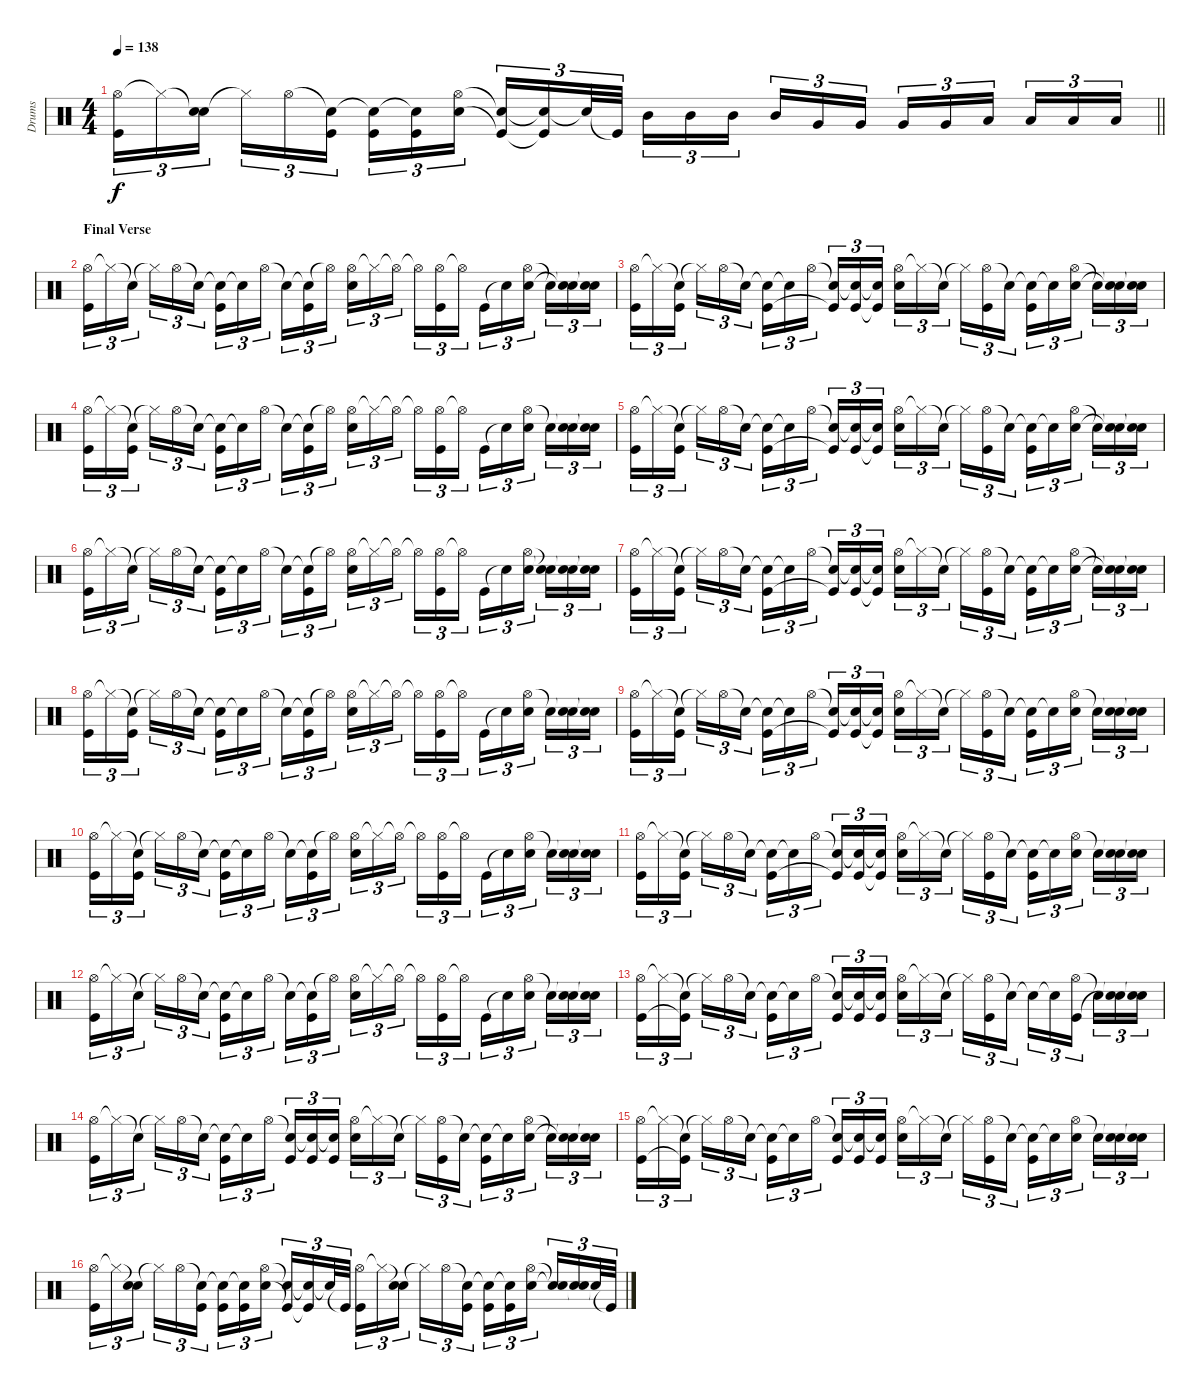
\track ("Drums" "Drums") {instrument percussion}
\staff {score}
\articulation defaults
\ts (4 4)
\tempo 138
\clef neutral
\barLineRight lightlight
\ks c
("Hi-Hat (open)" "Kick (hit)").16{tu (3 2) dy f} "Hi-Hat (closed)"{t}.16{tu (3 2)} ("Snare (hit)"{t} "Electric Snare (hit)").16{tu (3 2)} "Hi-Hat (closed)"{t}.16{tu (3 2)} "Hi-Hat (open)".16{tu (3 2)} ("Snare (hit)"{t} "Kick (hit)").16{tu (3 2)} ("Snare (hit)"{t} "Kick (hit)").16{tu (3 2)} ("Snare (hit)"{t} "Kick (hit)").16{tu (3 2)} ("Hi-Hat (open)" "Electric Snare (hit)").16{tu (3 2)} ("Snare (hit)"{t} "Kick (hit)"{t}).16{tu (3 2)} ("Snare (hit)"{t} "Kick (hit)"{t}).16{tu (3 2)} "Snare (hit)"{t}.32{tu (3 2)} "Kick (hit)"{t}.32{tu (3 2)} "Mid Tom (hit)".16{tu (3 2)} "Mid Tom (hit)".16{tu (3 2)} "Mid Tom (hit)".16{tu (3 2)} "Mid Tom (hit)".16{tu (3 2)} "Very Low Tom (hit)".16{tu (3 2)} "Very Low Tom (hit)".16{tu (3 2)} "Very Low Tom (hit)".16{tu (3 2)} "Very Low Tom (hit)".16{tu (3 2)} "Low Floor Tom (hit)".16{tu (3 2)} "Low Floor Tom (hit)".16{tu (3 2)} "Low Floor Tom (hit)".16{tu (3 2)} "Low Floor Tom (hit)".16{tu (3 2)} |
\section ("" "Final Verse")
("Hi-Hat (open)" "Kick (hit)").16{tu (3 2)} "Hi-Hat (closed)"{t}.16{tu (3 2)} "Snare (hit)"{t}.16{tu (3 2)} "Hi-Hat (closed)"{t}.16{tu (3 2)} "Hi-Hat (open)".16{tu (3 2)} "Snare (hit)"{t}.16{tu (3 2)} ("Snare (hit)"{t} "Kick (hit)").16{tu (3 2)} "Snare (hit)"{t}.16{tu (3 2)} "Hi-Hat (open)".16{tu (3 2)} "Snare (hit)"{t}.16{tu (3 2)} ("Snare (hit)"{t} "Kick (hit)").16{tu (3 2)} "Hi-Hat (open)"{t}.16{tu (3 2)} ("Hi-Hat (open)" "Electric Snare (hit)").16{tu (3 2)} "Hi-Hat (closed)"{t}.16{tu (3 2)} "Hi-Hat (open)"{t}.16{tu (3 2)} "Hi-Hat (open)"{t}.16{tu (3 2)} ("Hi-Hat (open)" "Kick (hit)").16{tu (3 2)} "Hi-Hat (open)"{t}.16{tu (3 2)} "Kick (hit)".16{tu (3 2)} "Snare (hit)"{t}.16{tu (3 2)} ("Hi-Hat (open)" "Electric Snare (hit)").16{tu (3 2)} "Snare (hit)"{t}.16{tu (3 2)} ("Snare (hit)"{t} "Electric Snare (hit)"{t}).16{tu (3 2)} ("Snare (hit)"{t} "Electric Snare (hit)"{t}).16{tu (3 2)} |
("Hi-Hat (open)" "Kick (hit)").16{tu (3 2)} "Hi-Hat (closed)"{t}.16{tu (3 2)} ("Snare (hit)"{t} "Kick (hit)").16{tu (3 2)} "Hi-Hat (closed)"{t}.16{tu (3 2)} "Hi-Hat (open)".16{tu (3 2)} "Snare (hit)"{t}.16{tu (3 2)} ("Snare (hit)"{t} "Kick (hit)").16{tu (3 2)} "Snare (hit)"{t}.16{tu (3 2)} "Hi-Hat (open)".16{tu (3 2)} ("Snare (hit)"{t} "Kick (hit)"{t}).16{tu (3 2)} ("Snare (hit)"{t} "Kick (hit)").16{tu (3 2)} ("Snare (hit)"{t} "Kick (hit)"{t}).16{tu (3 2)} ("Hi-Hat (open)" "Electric Snare (hit)").16{tu (3 2)} "Hi-Hat (closed)"{t}.16{tu (3 2)} "Snare (hit)"{t}.16{tu (3 2)} "Hi-Hat (closed)"{t}.16{tu (3 2)} ("Hi-Hat (open)" "Kick (hit)").16{tu (3 2)} "Snare (hit)"{t}.16{tu (3 2)} ("Snare (hit)"{t} "Kick (hit)").16{tu (3 2)} "Snare (hit)"{t}.16{tu (3 2)} ("Hi-Hat (open)" "Electric Snare (hit)").16{tu (3 2)} "Snare (hit)"{t}.16{tu (3 2)} ("Snare (hit)"{t} "Electric Snare (hit)"{t}).16{tu (3 2)} ("Snare (hit)"{t} "Electric Snare (hit)"{t}).16{tu (3 2)} |
("Hi-Hat (open)" "Kick (hit)").16{tu (3 2)} "Hi-Hat (closed)"{t}.16{tu (3 2)} ("Snare (hit)"{t} "Kick (hit)").16{tu (3 2)} "Hi-Hat (closed)"{t}.16{tu (3 2)} "Hi-Hat (open)".16{tu (3 2)} "Snare (hit)"{t}.16{tu (3 2)} ("Snare (hit)"{t} "Kick (hit)").16{tu (3 2)} "Snare (hit)"{t}.16{tu (3 2)} "Hi-Hat (open)".16{tu (3 2)} "Snare (hit)"{t}.16{tu (3 2)} ("Snare (hit)"{t} "Kick (hit)").16{tu (3 2)} "Hi-Hat (open)"{t}.16{tu (3 2)} ("Hi-Hat (open)" "Electric Snare (hit)").16{tu (3 2)} "Hi-Hat (closed)"{t}.16{tu (3 2)} "Hi-Hat (open)"{t}.16{tu (3 2)} "Hi-Hat (open)"{t}.16{tu (3 2)} ("Hi-Hat (open)" "Kick (hit)").16{tu (3 2)} "Hi-Hat (open)"{t}.16{tu (3 2)} "Kick (hit)".16{tu (3 2)} "Snare (hit)"{t}.16{tu (3 2)} ("Hi-Hat (open)" "Electric Snare (hit)").16{tu (3 2)} "Snare (hit)"{t}.16{tu (3 2)} ("Snare (hit)"{t} "Electric Snare (hit)").16{tu (3 2)} ("Snare (hit)"{t} "Electric Snare (hit)"{t}).16{tu (3 2)} |
("Hi-Hat (open)" "Kick (hit)").16{tu (3 2)} "Hi-Hat (closed)"{t}.16{tu (3 2)} ("Snare (hit)"{t} "Kick (hit)").16{tu (3 2)} "Hi-Hat (closed)"{t}.16{tu (3 2)} "Hi-Hat (open)".16{tu (3 2)} "Snare (hit)"{t}.16{tu (3 2)} ("Snare (hit)"{t} "Kick (hit)").16{tu (3 2)} "Snare (hit)"{t}.16{tu (3 2)} "Hi-Hat (open)".16{tu (3 2)} ("Snare (hit)"{t} "Kick (hit)"{t}).16{tu (3 2)} ("Snare (hit)"{t} "Kick (hit)").16{tu (3 2)} ("Snare (hit)"{t} "Kick (hit)"{t}).16{tu (3 2)} ("Hi-Hat (open)" "Electric Snare (hit)").16{tu (3 2)} "Hi-Hat (closed)"{t}.16{tu (3 2)} "Snare (hit)"{t}.16{tu (3 2)} "Hi-Hat (closed)"{t}.16{tu (3 2)} ("Hi-Hat (open)" "Kick (hit)").16{tu (3 2)} "Snare (hit)"{t}.16{tu (3 2)} ("Snare (hit)"{t} "Kick (hit)").16{tu (3 2)} "Snare (hit)"{t}.16{tu (3 2)} ("Hi-Hat (open)" "Electric Snare (hit)").16{tu (3 2)} "Snare (hit)"{t}.16{tu (3 2)} ("Snare (hit)"{t} "Electric Snare (hit)"{t}).16{tu (3 2)} ("Snare (hit)"{t} "Electric Snare (hit)"{t}).16{tu (3 2)} |
("Hi-Hat (open)" "Kick (hit)").16{tu (3 2)} "Hi-Hat (closed)"{t}.16{tu (3 2)} "Snare (hit)"{t}.16{tu (3 2)} "Hi-Hat (closed)"{t}.16{tu (3 2)} "Hi-Hat (open)".16{tu (3 2)} "Snare (hit)"{t}.16{tu (3 2)} ("Snare (hit)"{t} "Kick (hit)").16{tu (3 2)} "Snare (hit)"{t}.16{tu (3 2)} "Hi-Hat (open)".16{tu (3 2)} "Snare (hit)"{t}.16{tu (3 2)} ("Snare (hit)"{t} "Kick (hit)").16{tu (3 2)} "Hi-Hat (open)"{t}.16{tu (3 2)} ("Hi-Hat (open)" "Electric Snare (hit)").16{tu (3 2)} "Hi-Hat (closed)"{t}.16{tu (3 2)} "Hi-Hat (open)"{t}.16{tu (3 2)} "Hi-Hat (open)"{t}.16{tu (3 2)} ("Hi-Hat (open)" "Kick (hit)").16{tu (3 2)} "Hi-Hat (open)"{t}.16{tu (3 2)} "Kick (hit)".16{tu (3 2)} "Snare (hit)"{t}.16{tu (3 2)} ("Hi-Hat (open)" "Electric Snare (hit)").16{tu (3 2)} ("Snare (hit)"{t} "Electric Snare (hit)"{t}).16{tu (3 2)} ("Snare (hit)"{t} "Electric Snare (hit)").16{tu (3 2)} ("Snare (hit)"{t} "Electric Snare (hit)"{t}).16{tu (3 2)} |
("Hi-Hat (open)" "Kick (hit)").16{tu (3 2)} "Hi-Hat (closed)"{t}.16{tu (3 2)} ("Snare (hit)"{t} "Kick (hit)").16{tu (3 2)} "Hi-Hat (closed)"{t}.16{tu (3 2)} "Hi-Hat (open)".16{tu (3 2)} "Snare (hit)"{t}.16{tu (3 2)} ("Snare (hit)"{t} "Kick (hit)").16{tu (3 2)} "Snare (hit)"{t}.16{tu (3 2)} "Hi-Hat (open)".16{tu (3 2)} ("Snare (hit)"{t} "Kick (hit)"{t}).16{tu (3 2)} ("Snare (hit)"{t} "Kick (hit)").16{tu (3 2)} ("Snare (hit)"{t} "Kick (hit)"{t}).16{tu (3 2)} ("Hi-Hat (open)" "Electric Snare (hit)").16{tu (3 2)} "Hi-Hat (closed)"{t}.16{tu (3 2)} "Snare (hit)"{t}.16{tu (3 2)} "Hi-Hat (closed)"{t}.16{tu (3 2)} ("Hi-Hat (open)" "Kick (hit)").16{tu (3 2)} "Snare (hit)"{t}.16{tu (3 2)} ("Snare (hit)"{t} "Kick (hit)").16{tu (3 2)} "Snare (hit)"{t}.16{tu (3 2)} ("Hi-Hat (open)" "Electric Snare (hit)").16{tu (3 2)} "Snare (hit)"{t}.16{tu (3 2)} ("Snare (hit)"{t} "Electric Snare (hit)"{t}).16{tu (3 2)} ("Snare (hit)"{t} "Electric Snare (hit)"{t}).16{tu (3 2)} |
("Hi-Hat (open)" "Kick (hit)").16{tu (3 2)} "Hi-Hat (closed)"{t}.16{tu (3 2)} ("Snare (hit)"{t} "Kick (hit)").16{tu (3 2)} "Hi-Hat (closed)"{t}.16{tu (3 2)} "Hi-Hat (open)".16{tu (3 2)} "Snare (hit)"{t}.16{tu (3 2)} ("Snare (hit)"{t} "Kick (hit)").16{tu (3 2)} "Snare (hit)"{t}.16{tu (3 2)} "Hi-Hat (open)".16{tu (3 2)} "Snare (hit)"{t}.16{tu (3 2)} ("Snare (hit)"{t} "Kick (hit)").16{tu (3 2)} "Hi-Hat (open)"{t}.16{tu (3 2)} ("Hi-Hat (open)" "Electric Snare (hit)").16{tu (3 2)} "Hi-Hat (closed)"{t}.16{tu (3 2)} "Hi-Hat (open)"{t}.16{tu (3 2)} "Hi-Hat (open)"{t}.16{tu (3 2)} ("Hi-Hat (open)" "Kick (hit)").16{tu (3 2)} "Hi-Hat (open)"{t}.16{tu (3 2)} "Kick (hit)".16{tu (3 2)} "Snare (hit)"{t}.16{tu (3 2)} ("Hi-Hat (open)" "Electric Snare (hit)").16{tu (3 2)} "Snare (hit)"{t}.16{tu (3 2)} ("Snare (hit)"{t} "Electric Snare (hit)").16{tu (3 2)} ("Snare (hit)"{t} "Electric Snare (hit)"{t}).16{tu (3 2)} |
("Hi-Hat (open)" "Kick (hit)").16{tu (3 2)} "Hi-Hat (closed)"{t}.16{tu (3 2)} ("Snare (hit)"{t} "Kick (hit)").16{tu (3 2)} "Hi-Hat (closed)"{t}.16{tu (3 2)} "Hi-Hat (open)".16{tu (3 2)} "Snare (hit)"{t}.16{tu (3 2)} ("Snare (hit)"{t} "Kick (hit)").16{tu (3 2)} "Snare (hit)"{t}.16{tu (3 2)} "Hi-Hat (open)".16{tu (3 2)} ("Snare (hit)"{t} "Kick (hit)"{t}).16{tu (3 2)} ("Snare (hit)"{t} "Kick (hit)").16{tu (3 2)} ("Snare (hit)"{t} "Kick (hit)"{t}).16{tu (3 2)} ("Hi-Hat (open)" "Electric Snare (hit)").16{tu (3 2)} "Hi-Hat (closed)"{t}.16{tu (3 2)} "Snare (hit)"{t}.16{tu (3 2)} "Hi-Hat (closed)"{t}.16{tu (3 2)} ("Hi-Hat (open)" "Kick (hit)").16{tu (3 2)} "Snare (hit)"{t}.16{tu (3 2)} ("Snare (hit)"{t} "Kick (hit)").16{tu (3 2)} "Snare (hit)"{t}.16{tu (3 2)} ("Hi-Hat (open)" "Electric Snare (hit)").16{tu (3 2)} "Snare (hit)"{t}.16{tu (3 2)} ("Snare (hit)"{t} "Electric Snare (hit)").16{tu (3 2)} ("Snare (hit)"{t} "Electric Snare (hit)"{t}).16{tu (3 2)} |
("Hi-Hat (open)" "Kick (hit)").16{tu (3 2)} "Hi-Hat (closed)"{t}.16{tu (3 2)} ("Snare (hit)"{t} "Kick (hit)").16{tu (3 2)} "Hi-Hat (closed)"{t}.16{tu (3 2)} "Hi-Hat (open)".16{tu (3 2)} "Snare (hit)"{t}.16{tu (3 2)} ("Snare (hit)"{t} "Kick (hit)").16{tu (3 2)} "Snare (hit)"{t}.16{tu (3 2)} "Hi-Hat (open)".16{tu (3 2)} "Snare (hit)"{t}.16{tu (3 2)} ("Snare (hit)"{t} "Kick (hit)").16{tu (3 2)} "Hi-Hat (open)"{t}.16{tu (3 2)} ("Hi-Hat (open)" "Electric Snare (hit)").16{tu (3 2)} "Hi-Hat (closed)"{t}.16{tu (3 2)} "Hi-Hat (open)"{t}.16{tu (3 2)} "Hi-Hat (open)"{t}.16{tu (3 2)} ("Hi-Hat (open)" "Kick (hit)").16{tu (3 2)} "Hi-Hat (open)"{t}.16{tu (3 2)} "Kick (hit)".16{tu (3 2)} "Snare (hit)"{t}.16{tu (3 2)} ("Hi-Hat (open)" "Electric Snare (hit)").16{tu (3 2)} "Snare (hit)"{t}.16{tu (3 2)} ("Snare (hit)"{t} "Electric Snare (hit)").16{tu (3 2)} ("Snare (hit)"{t} "Electric Snare (hit)"{t}).16{tu (3 2)} |
("Hi-Hat (open)" "Kick (hit)").16{tu (3 2)} "Hi-Hat (closed)"{t}.16{tu (3 2)} ("Snare (hit)"{t} "Kick (hit)").16{tu (3 2)} "Hi-Hat (closed)"{t}.16{tu (3 2)} "Hi-Hat (open)".16{tu (3 2)} "Snare (hit)"{t}.16{tu (3 2)} ("Snare (hit)"{t} "Kick (hit)").16{tu (3 2)} "Snare (hit)"{t}.16{tu (3 2)} "Hi-Hat (open)".16{tu (3 2)} ("Snare (hit)"{t} "Kick (hit)"{t}).16{tu (3 2)} ("Snare (hit)"{t} "Kick (hit)").16{tu (3 2)} ("Snare (hit)"{t} "Kick (hit)"{t}).16{tu (3 2)} ("Hi-Hat (open)" "Electric Snare (hit)").16{tu (3 2)} "Hi-Hat (closed)"{t}.16{tu (3 2)} "Snare (hit)"{t}.16{tu (3 2)} "Hi-Hat (closed)"{t}.16{tu (3 2)} ("Hi-Hat (open)" "Kick (hit)").16{tu (3 2)} "Snare (hit)"{t}.16{tu (3 2)} ("Snare (hit)"{t} "Kick (hit)").16{tu (3 2)} "Snare (hit)"{t}.16{tu (3 2)} ("Hi-Hat (open)" "Electric Snare (hit)").16{tu (3 2)} "Snare (hit)"{t}.16{tu (3 2)} ("Snare (hit)"{t} "Electric Snare (hit)").16{tu (3 2)} ("Snare (hit)"{t} "Electric Snare (hit)"{t}).16{tu (3 2)} |
("Hi-Hat (open)" "Kick (hit)").16{tu (3 2)} "Hi-Hat (closed)"{t}.16{tu (3 2)} "Snare (hit)"{t}.16{tu (3 2)} "Hi-Hat (closed)"{t}.16{tu (3 2)} "Hi-Hat (open)".16{tu (3 2)} "Snare (hit)"{t}.16{tu (3 2)} ("Snare (hit)"{t} "Kick (hit)").16{tu (3 2)} "Snare (hit)"{t}.16{tu (3 2)} "Hi-Hat (open)".16{tu (3 2)} "Snare (hit)"{t}.16{tu (3 2)} ("Snare (hit)"{t} "Kick (hit)").16{tu (3 2)} "Hi-Hat (open)"{t}.16{tu (3 2)} ("Hi-Hat (open)" "Electric Snare (hit)").16{tu (3 2)} "Hi-Hat (closed)"{t}.16{tu (3 2)} "Hi-Hat (open)"{t}.16{tu (3 2)} "Hi-Hat (open)"{t}.16{tu (3 2)} ("Hi-Hat (open)" "Kick (hit)").16{tu (3 2)} "Hi-Hat (open)"{t}.16{tu (3 2)} "Kick (hit)".16{tu (3 2)} "Snare (hit)"{t}.16{tu (3 2)} ("Hi-Hat (open)" "Electric Snare (hit)").16{tu (3 2)} "Snare (hit)"{t}.16{tu (3 2)} ("Snare (hit)"{t} "Electric Snare (hit)").16{tu (3 2)} ("Snare (hit)"{t} "Electric Snare (hit)"{t}).16{tu (3 2)} |
("Hi-Hat (open)" "Kick (hit)").16{tu (3 2)} "Hi-Hat (closed)"{t}.16{tu (3 2)} ("Snare (hit)"{t} "Kick (hit)"{t}).16{tu (3 2)} "Hi-Hat (closed)"{t}.16{tu (3 2)} "Hi-Hat (open)".16{tu (3 2)} "Snare (hit)"{t}.16{tu (3 2)} ("Snare (hit)"{t} "Kick (hit)").16{tu (3 2)} "Snare (hit)"{t}.16{tu (3 2)} "Hi-Hat (open)".16{tu (3 2)} ("Snare (hit)"{t} "Kick (hit)").16{tu (3 2)} ("Snare (hit)"{t} "Kick (hit)").16{tu (3 2)} ("Snare (hit)"{t} "Kick (hit)").16{tu (3 2)} ("Hi-Hat (open)" "Electric Snare (hit)").16{tu (3 2)} "Hi-Hat (closed)"{t}.16{tu (3 2)} "Snare (hit)"{t}.16{tu (3 2)} "Hi-Hat (closed)"{t}.16{tu (3 2)} ("Hi-Hat (open)" "Kick (hit)").16{tu (3 2)} "Snare (hit)"{t}.16{tu (3 2)} "Snare (hit)"{t}.16{tu (3 2)} "Snare (hit)"{t}.16{tu (3 2)} ("Hi-Hat (open)" "Kick (hit)").16{tu (3 2)} "Snare (hit)"{t}.16{tu (3 2)} ("Snare (hit)"{t} "Electric Snare (hit)"{t}).16{tu (3 2)} ("Snare (hit)"{t} "Electric Snare (hit)"{t}).16{tu (3 2)} |
("Hi-Hat (open)" "Kick (hit)").16{tu (3 2)} "Hi-Hat (closed)"{t}.16{tu (3 2)} "Snare (hit)"{t}.16{tu (3 2)} "Hi-Hat (closed)"{t}.16{tu (3 2)} "Hi-Hat (open)".16{tu (3 2)} "Snare (hit)"{t}.16{tu (3 2)} ("Snare (hit)"{t} "Kick (hit)").16{tu (3 2)} "Snare (hit)"{t}.16{tu (3 2)} "Hi-Hat (open)".16{tu (3 2)} ("Snare (hit)"{t} "Kick (hit)").16{tu (3 2)} ("Snare (hit)"{t} "Kick (hit)").16{tu (3 2)} ("Snare (hit)"{t} "Kick (hit)").16{tu (3 2)} ("Hi-Hat (open)" "Electric Snare (hit)").16{tu (3 2)} "Hi-Hat (closed)"{t}.16{tu (3 2)} "Snare (hit)"{t}.16{tu (3 2)} "Hi-Hat (closed)"{t}.16{tu (3 2)} ("Hi-Hat (open)" "Kick (hit)").16{tu (3 2)} "Snare (hit)"{t}.16{tu (3 2)} ("Snare (hit)"{t} "Kick (hit)").16{tu (3 2)} "Snare (hit)"{t}.16{tu (3 2)} ("Hi-Hat (open)" "Electric Snare (hit)").16{tu (3 2)} "Snare (hit)"{t}.16{tu (3 2)} ("Snare (hit)"{t} "Electric Snare (hit)"{t}).16{tu (3 2)} ("Snare (hit)"{t} "Electric Snare (hit)"{t}).16{tu (3 2)} |
("Hi-Hat (open)" "Kick (hit)").16{tu (3 2)} "Hi-Hat (closed)"{t}.16{tu (3 2)} ("Snare (hit)"{t} "Kick (hit)"{t}).16{tu (3 2)} "Hi-Hat (closed)"{t}.16{tu (3 2)} "Hi-Hat (open)".16{tu (3 2)} "Snare (hit)"{t}.16{tu (3 2)} ("Snare (hit)"{t} "Kick (hit)").16{tu (3 2)} "Snare (hit)"{t}.16{tu (3 2)} "Hi-Hat (open)".16{tu (3 2)} ("Snare (hit)"{t} "Kick (hit)").16{tu (3 2)} ("Snare (hit)"{t} "Kick (hit)").16{tu (3 2)} ("Snare (hit)"{t} "Kick (hit)").16{tu (3 2)} ("Hi-Hat (open)" "Electric Snare (hit)").16{tu (3 2)} "Hi-Hat (closed)"{t}.16{tu (3 2)} "Snare (hit)"{t}.16{tu (3 2)} "Hi-Hat (closed)"{t}.16{tu (3 2)} ("Hi-Hat (open)" "Kick (hit)").16{tu (3 2)} "Snare (hit)"{t}.16{tu (3 2)} ("Snare (hit)"{t} "Kick (hit)").16{tu (3 2)} "Snare (hit)"{t}.16{tu (3 2)} ("Hi-Hat (open)" "Electric Snare (hit)").16{tu (3 2)} "Snare (hit)"{t}.16{tu (3 2)} ("Snare (hit)"{t} "Electric Snare (hit)").16{tu (3 2)} ("Snare (hit)"{t} "Electric Snare (hit)"{t}).16{tu (3 2)} |
("Hi-Hat (open)" "Kick (hit)").16{tu (3 2)} "Hi-Hat (closed)"{t}.16{tu (3 2)} ("Snare (hit)"{t} "Electric Snare (hit)").16{tu (3 2)} "Hi-Hat (closed)"{t}.16{tu (3 2)} "Hi-Hat (open)".16{tu (3 2)} ("Snare (hit)"{t} "Kick (hit)").16{tu (3 2)} ("Snare (hit)"{t} "Kick (hit)").16{tu (3 2)} ("Snare (hit)"{t} "Kick (hit)").16{tu (3 2)} ("Hi-Hat (open)" "Electric Snare (hit)").16{tu (3 2)} ("Snare (hit)"{t} "Kick (hit)"{t}).16{tu (3 2)} ("Snare (hit)"{t} "Kick (hit)"{t}).16{tu (3 2)} "Snare (hit)"{t}.32{tu (3 2)} "Kick (hit)"{t}.32{tu (3 2)} ("Hi-Hat (open)" "Kick (hit)").16{tu (3 2)} "Hi-Hat (closed)"{t}.16{tu (3 2)} ("Snare (hit)"{t} "Electric Snare (hit)").16{tu (3 2)} "Hi-Hat (closed)"{t}.16{tu (3 2)} "Hi-Hat (open)".16{tu (3 2)} ("Snare (hit)"{t} "Kick (hit)").16{tu (3 2)} ("Snare (hit)"{t} "Kick (hit)").16{tu (3 2)} ("Snare (hit)"{t} "Kick (hit)").16{tu (3 2)} ("Hi-Hat (open)" "Electric Snare (hit)").16{tu (3 2)} ("Snare (hit)"{t} "Electric Snare (hit)"{t}).16{tu (3 2)} ("Snare (hit)"{t} "Electric Snare (hit)").16{tu (3 2)} "Snare (hit)"{t}.32{tu (3 2)} "Kick (hit)"{t}.32{tu (3 2)}
